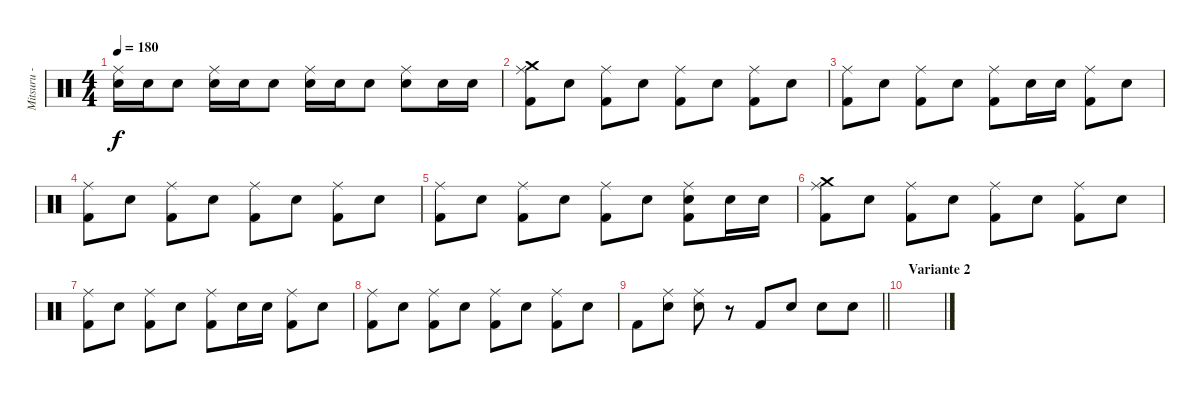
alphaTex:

\track ("Mitsuru - Batterie" "Mitsuru - ") {instrument percussion}
\staff {score}
\articulation defaults
\ts (4 4)
\tempo 180
\clef neutral
\ks c
("Ride (middle)" "Electric Snare (hit)").16{dy f} "Electric Snare (hit)".16 "Electric Snare (hit)".8 ("Ride (middle)" "Electric Snare (hit)").16 "Electric Snare (hit)".16 "Electric Snare (hit)".8 ("Ride (middle)" "Electric Snare (hit)").16 "Electric Snare (hit)".16 "Electric Snare (hit)".8 ("Ride (middle)" "Electric Snare (hit)").8 "Electric Snare (hit)".16 "Electric Snare (hit)".16 |
("Crash medium (hit)" "Ride (middle)" "Kick (hit) 2").8 "Electric Snare (hit)".8 ("Ride (middle)" "Kick (hit) 2").8 "Electric Snare (hit)".8 ("Ride (middle)" "Kick (hit) 2").8 "Electric Snare (hit)".8 ("Ride (middle)" "Kick (hit) 2").8 "Electric Snare (hit)".8 |
("Ride (middle)" "Kick (hit) 2").8 "Electric Snare (hit)".8 ("Ride (middle)" "Kick (hit) 2").8 "Electric Snare (hit)".8 ("Ride (middle)" "Kick (hit) 2").8 "Electric Snare (hit)".16 "Electric Snare (hit)".16 ("Ride (middle)" "Kick (hit) 2").8 "Electric Snare (hit)".8 |
("Ride (middle)" "Kick (hit) 2").8 "Electric Snare (hit)".8 ("Ride (middle)" "Kick (hit) 2").8 "Electric Snare (hit)".8 ("Ride (middle)" "Kick (hit) 2").8 "Electric Snare (hit)".8 ("Ride (middle)" "Kick (hit) 2").8 "Electric Snare (hit)".8 |
("Ride (middle)" "Kick (hit) 2").8 "Electric Snare (hit)".8 ("Ride (middle)" "Kick (hit) 2").8 "Electric Snare (hit)".8 ("Ride (middle)" "Kick (hit) 2").8 "Electric Snare (hit)".8 ("Ride (middle)" "Electric Snare (hit)" "Kick (hit) 2").8 "Electric Snare (hit)".16 "Electric Snare (hit)".16 |
("Crash medium (hit)" "Ride (middle)" "Kick (hit) 2").8 "Electric Snare (hit)".8 ("Ride (middle)" "Kick (hit) 2").8 "Electric Snare (hit)".8 ("Ride (middle)" "Kick (hit) 2").8 "Electric Snare (hit)".8 ("Ride (middle)" "Kick (hit) 2").8 "Electric Snare (hit)".8 |
("Ride (middle)" "Kick (hit) 2").8 "Electric Snare (hit)".8 ("Ride (middle)" "Kick (hit) 2").8 "Electric Snare (hit)".8 ("Ride (middle)" "Kick (hit) 2").8 "Electric Snare (hit)".16 "Electric Snare (hit)".16 ("Ride (middle)" "Kick (hit) 2").8 "Electric Snare (hit)".8 |
("Ride (middle)" "Kick (hit) 2").8 "Electric Snare (hit)".8 ("Ride (middle)" "Kick (hit) 2").8 "Electric Snare (hit)".8 ("Ride (middle)" "Kick (hit) 2").8 "Electric Snare (hit)".8 ("Ride (middle)" "Kick (hit) 2").8 "Electric Snare (hit)".8 |
\barLineRight lightlight "Kick (hit) 2".8
("Ride (middle)" "Electric Snare (hit)").8 ("Ride (middle)" "Electric Snare (hit)").8 r.8 "Kick (hit) 2".8 "Electric Snare (hit)".8 "Electric Snare (hit)".8 "Electric Snare (hit)".8 |
\section ("" "Variante 2")
